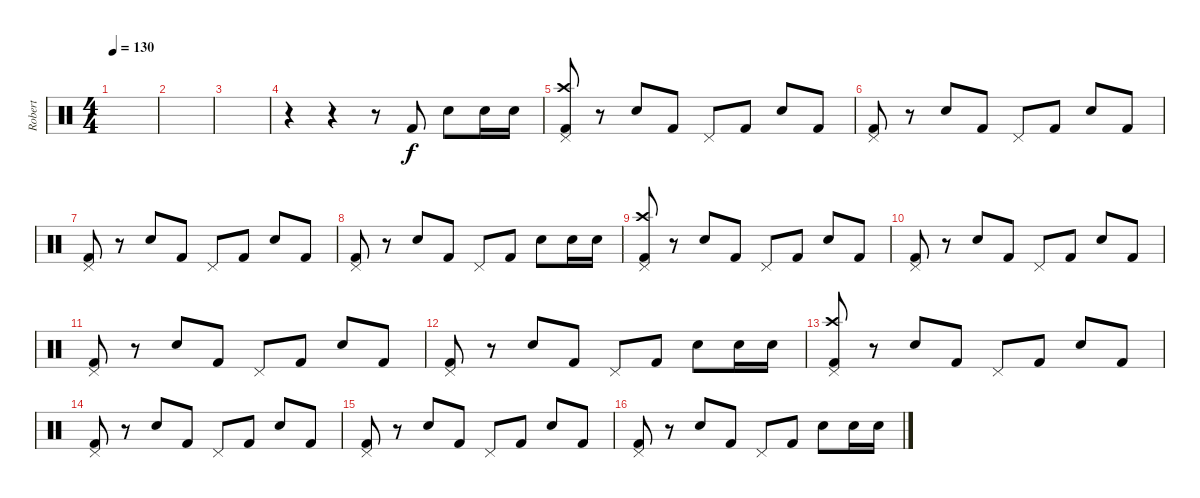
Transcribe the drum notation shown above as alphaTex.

\track ("Robert" "Robert") {instrument percussion}
\staff {score}
\articulation defaults
\ts (4 4)
\tempo 130
\clef neutral
\ks c
|
|
|
r.4 r.4 r.8 "Kick (hit) 2".8 "Electric Snare (hit)".8 "Electric Snare (hit)".16 "Electric Snare (hit)".16 |
("Crash high (hit)" "Pedal Hi-Hat (hit)" "Kick (hit) 2").8 r.8 "Electric Snare (hit)".8 "Kick (hit) 2".8 "Pedal Hi-Hat (hit)".8 "Kick (hit) 2".8 "Electric Snare (hit)".8 "Kick (hit) 2".8 |
("Pedal Hi-Hat (hit)" "Kick (hit) 2").8 r.8 "Electric Snare (hit)".8 "Kick (hit) 2".8 "Pedal Hi-Hat (hit)".8 "Kick (hit) 2".8 "Electric Snare (hit)".8 "Kick (hit) 2".8 |
("Pedal Hi-Hat (hit)" "Kick (hit) 2").8 r.8 "Electric Snare (hit)".8 "Kick (hit) 2".8 "Pedal Hi-Hat (hit)".8 "Kick (hit) 2".8 "Electric Snare (hit)".8 "Kick (hit) 2".8 |
("Pedal Hi-Hat (hit)" "Kick (hit) 2").8 r.8 "Electric Snare (hit)".8 "Kick (hit) 2".8 "Pedal Hi-Hat (hit)".8 "Kick (hit) 2".8 "Electric Snare (hit)".8 "Electric Snare (hit)".16 "Electric Snare (hit)".16 |
("Crash high (hit)" "Pedal Hi-Hat (hit)" "Kick (hit) 2").8 r.8 "Electric Snare (hit)".8 "Kick (hit) 2".8 "Pedal Hi-Hat (hit)".8 "Kick (hit) 2".8 "Electric Snare (hit)".8 "Kick (hit) 2".8 |
("Pedal Hi-Hat (hit)" "Kick (hit) 2").8 r.8 "Electric Snare (hit)".8 "Kick (hit) 2".8 "Pedal Hi-Hat (hit)".8 "Kick (hit) 2".8 "Electric Snare (hit)".8 "Kick (hit) 2".8 |
("Pedal Hi-Hat (hit)" "Kick (hit) 2").8 r.8 "Electric Snare (hit)".8 "Kick (hit) 2".8 "Pedal Hi-Hat (hit)".8 "Kick (hit) 2".8 "Electric Snare (hit)".8 "Kick (hit) 2".8 |
("Pedal Hi-Hat (hit)" "Kick (hit) 2").8 r.8 "Electric Snare (hit)".8 "Kick (hit) 2".8 "Pedal Hi-Hat (hit)".8 "Kick (hit) 2".8 "Electric Snare (hit)".8 "Electric Snare (hit)".16 "Electric Snare (hit)".16 |
("Crash high (hit)" "Pedal Hi-Hat (hit)" "Kick (hit) 2").8 r.8 "Electric Snare (hit)".8 "Kick (hit) 2".8 "Pedal Hi-Hat (hit)".8 "Kick (hit) 2".8 "Electric Snare (hit)".8 "Kick (hit) 2".8 |
("Pedal Hi-Hat (hit)" "Kick (hit) 2").8 r.8 "Electric Snare (hit)".8 "Kick (hit) 2".8 "Pedal Hi-Hat (hit)".8 "Kick (hit) 2".8 "Electric Snare (hit)".8 "Kick (hit) 2".8 |
("Pedal Hi-Hat (hit)" "Kick (hit) 2").8 r.8 "Electric Snare (hit)".8 "Kick (hit) 2".8 "Pedal Hi-Hat (hit)".8 "Kick (hit) 2".8 "Electric Snare (hit)".8 "Kick (hit) 2".8 |
("Pedal Hi-Hat (hit)" "Kick (hit) 2").8 r.8 "Electric Snare (hit)".8 "Kick (hit) 2".8 "Pedal Hi-Hat (hit)".8 "Kick (hit) 2".8 "Electric Snare (hit)".8 "Electric Snare (hit)".16 "Electric Snare (hit)".16
